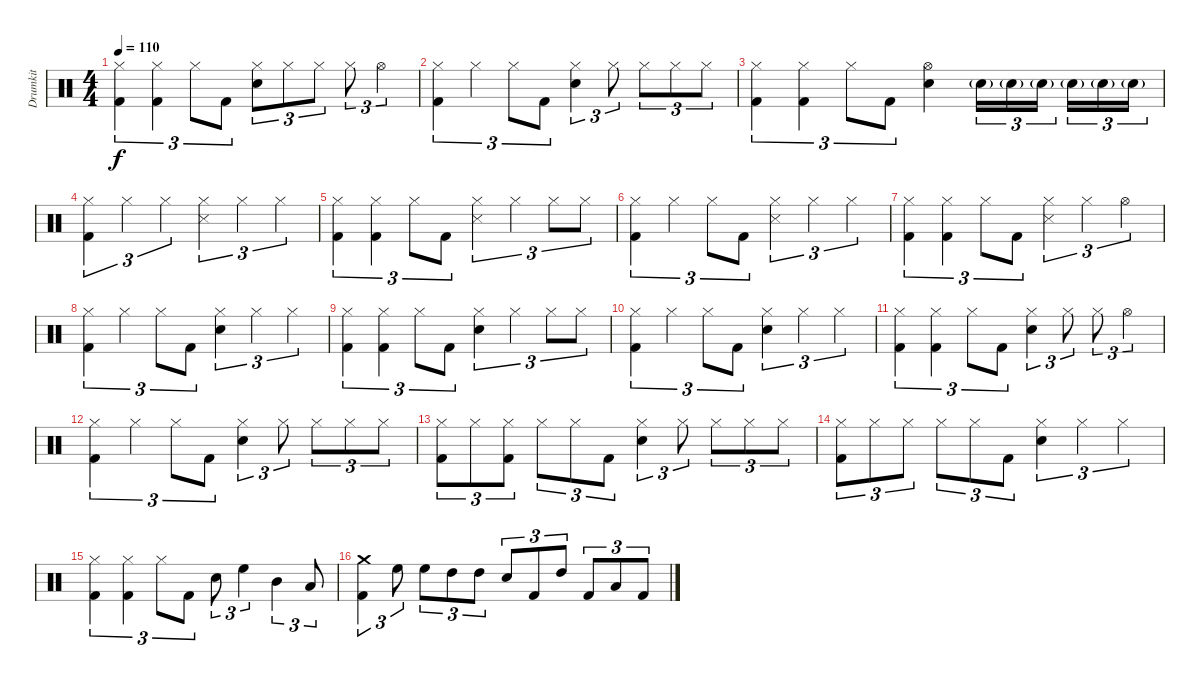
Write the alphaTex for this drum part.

\track ("Drumkit" "Drumkit") {instrument percussion}
\staff {score}
\articulation defaults
\ts (4 4)
\tempo 110
\clef neutral
\ks c
("Hi-Hat (closed)" "Kick (hit) 2").4{tu (3 2) dy f} ("Hi-Hat (closed)" "Kick (hit) 2").4{tu (3 2)} "Hi-Hat (closed)".8{tu (3 2)} "Kick (hit) 2".8{tu (3 2)} ("Hi-Hat (closed)" "Snare (hit) 2").8{tu (3 2)} "Hi-Hat (closed)".8{tu (3 2)} "Hi-Hat (closed)".8{tu (3 2)} "Hi-Hat (closed)".8{tu (3 2)} "Hi-Hat (open)".4{tu (3 2)} |
("Hi-Hat (closed)" "Kick (hit) 2").4{tu (3 2)} "Hi-Hat (closed)".4{tu (3 2)} "Hi-Hat (closed)".8{tu (3 2)} "Kick (hit) 2".8{tu (3 2)} ("Hi-Hat (closed)" "Snare (hit) 2").4{tu (3 2)} "Hi-Hat (closed)".8{tu (3 2)} "Hi-Hat (closed)".8{tu (3 2)} "Hi-Hat (closed)".8{tu (3 2)} "Hi-Hat (closed)".8{tu (3 2)} |
("Hi-Hat (closed)" "Kick (hit) 2").4{tu (3 2)} ("Hi-Hat (closed)" "Kick (hit) 2").4{tu (3 2)} "Hi-Hat (closed)".8{tu (3 2)} "Kick (hit) 2".8{tu (3 2)} ("Hi-Hat (open)" "Snare (hit) 2").4 "Snare (hit) 2"{g}.16{tu (3 2)} "Snare (hit) 2"{g}.16{tu (3 2)} "Snare (hit) 2"{g}.16{tu (3 2)} "Snare (hit) 2"{g}.16{tu (3 2)} "Snare (hit) 2"{g}.16{tu (3 2)} "Snare (hit) 2"{g}.16{tu (3 2)} |
("Hi-Hat (closed)" "Kick (hit) 2").4{tu (3 2)} "Hi-Hat (closed)".4{tu (3 2)} "Hi-Hat (closed)".4{tu (3 2)} ("Hi-Hat (closed)" "Snare (side stick) 3").4{tu (3 2)} "Hi-Hat (closed)".4{tu (3 2)} "Hi-Hat (closed)".4{tu (3 2)} |
("Hi-Hat (closed)" "Kick (hit) 2").4{tu (3 2)} ("Hi-Hat (closed)" "Kick (hit) 2").4{tu (3 2)} "Hi-Hat (closed)".8{tu (3 2)} "Kick (hit) 2".8{tu (3 2)} ("Hi-Hat (closed)" "Snare (side stick) 3").4{tu (3 2)} "Hi-Hat (closed)".4{tu (3 2)} "Hi-Hat (closed)".8{tu (3 2)} "Hi-Hat (closed)".8{tu (3 2)} |
("Hi-Hat (closed)" "Kick (hit) 2").4{tu (3 2)} "Hi-Hat (closed)".4{tu (3 2)} "Hi-Hat (closed)".8{tu (3 2)} "Kick (hit) 2".8{tu (3 2)} ("Hi-Hat (closed)" "Snare (side stick) 3").4{tu (3 2)} "Hi-Hat (closed)".4{tu (3 2)} "Hi-Hat (closed)".4{tu (3 2)} |
("Hi-Hat (closed)" "Kick (hit) 2").4{tu (3 2)} ("Hi-Hat (closed)" "Kick (hit) 2").4{tu (3 2)} "Hi-Hat (closed)".8{tu (3 2)} "Kick (hit) 2".8{tu (3 2)} ("Hi-Hat (closed)" "Snare (side stick) 3").4{tu (3 2)} "Hi-Hat (closed)".4{tu (3 2)} "Hi-Hat (open)".4{tu (3 2)} |
("Hi-Hat (closed)" "Kick (hit) 2").4{tu (3 2)} "Hi-Hat (closed)".4{tu (3 2)} "Hi-Hat (closed)".8{tu (3 2)} "Kick (hit) 2".8{tu (3 2)} ("Hi-Hat (closed)" "Snare (hit) 2").4{tu (3 2)} "Hi-Hat (closed)".4{tu (3 2)} "Hi-Hat (closed)".4{tu (3 2)} |
("Hi-Hat (closed)" "Kick (hit) 2").4{tu (3 2)} ("Hi-Hat (closed)" "Kick (hit) 2").4{tu (3 2)} "Hi-Hat (closed)".8{tu (3 2)} "Kick (hit) 2".8{tu (3 2)} ("Hi-Hat (closed)" "Snare (hit) 2").4{tu (3 2)} "Hi-Hat (closed)".4{tu (3 2)} "Hi-Hat (closed)".8{tu (3 2)} "Hi-Hat (closed)".8{tu (3 2)} |
("Hi-Hat (closed)" "Kick (hit) 2").4{tu (3 2)} "Hi-Hat (closed)".4{tu (3 2)} "Hi-Hat (closed)".8{tu (3 2)} "Kick (hit) 2".8{tu (3 2)} ("Hi-Hat (closed)" "Snare (hit) 2").4{tu (3 2)} "Hi-Hat (closed)".4{tu (3 2)} "Hi-Hat (closed)".4{tu (3 2)} |
("Hi-Hat (closed)" "Kick (hit) 2").4{tu (3 2)} ("Hi-Hat (closed)" "Kick (hit) 2").4{tu (3 2)} "Hi-Hat (closed)".8{tu (3 2)} "Kick (hit) 2".8{tu (3 2)} ("Hi-Hat (closed)" "Snare (hit) 2").4{tu (3 2)} "Hi-Hat (closed)".8{tu (3 2)} "Hi-Hat (closed)".8{tu (3 2)} "Hi-Hat (open)".4{tu (3 2)} |
("Hi-Hat (closed)" "Kick (hit) 2").4{tu (3 2)} "Hi-Hat (closed)".4{tu (3 2)} "Hi-Hat (closed)".8{tu (3 2)} "Kick (hit) 2".8{tu (3 2)} ("Hi-Hat (closed)" "Snare (hit) 2").4{tu (3 2)} "Hi-Hat (closed)".8{tu (3 2)} "Hi-Hat (closed)".8{tu (3 2)} "Hi-Hat (closed)".8{tu (3 2)} "Hi-Hat (closed)".8{tu (3 2)} |
("Hi-Hat (closed)" "Kick (hit) 2").8{tu (3 2)} "Hi-Hat (closed)".8{tu (3 2)} ("Hi-Hat (closed)" "Kick (hit) 2").8{tu (3 2)} "Hi-Hat (closed)".8{tu (3 2)} "Hi-Hat (closed)".8{tu (3 2)} "Kick (hit) 2".8{tu (3 2)} ("Hi-Hat (closed)" "Snare (hit) 2").4{tu (3 2)} "Hi-Hat (closed)".8{tu (3 2)} "Hi-Hat (closed)".8{tu (3 2)} "Hi-Hat (closed)".8{tu (3 2)} "Hi-Hat (closed)".8{tu (3 2)} |
("Hi-Hat (closed)" "Kick (hit) 2").8{tu (3 2)} "Hi-Hat (closed)".8{tu (3 2)} "Hi-Hat (closed)".8{tu (3 2)} "Hi-Hat (closed)".8{tu (3 2)} "Hi-Hat (closed)".8{tu (3 2)} "Kick (hit) 2".8{tu (3 2)} ("Hi-Hat (closed)" "Snare (hit) 2").4{tu (3 2)} "Hi-Hat (closed)".4{tu (3 2)} "Hi-Hat (closed)".4{tu (3 2)} |
("Hi-Hat (closed)" "Kick (hit) 2").4{tu (3 2)} ("Hi-Hat (closed)" "Kick (hit) 2").4{tu (3 2)} "Hi-Hat (closed)".8{tu (3 2)} "Kick (hit) 2".8{tu (3 2)} "Snare (hit) 2".8{tu (3 2)} "High Floor Tom (hit)".4{tu (3 2)} "Mid Tom (hit)".4{tu (3 2)} "Low Tom (hit)".8{tu (3 2)} |
("Crash medium (hit)" "Kick (hit) 2").4{tu (3 2)} "High Floor Tom (hit)".8{tu (3 2)} "High Floor Tom (hit)".8{tu (3 2)} "High Tom (hit)".8{tu (3 2)} "High Tom (hit)".8{tu (3 2)} "Snare (hit) 2".8{tu (3 2)} "Kick (hit) 2".8{tu (3 2)} "High Tom (hit)".8{tu (3 2)} "Kick (hit) 2".8{tu (3 2)} "Low Tom (hit)".8{tu (3 2)} "Kick (hit) 2".8{tu (3 2)}
